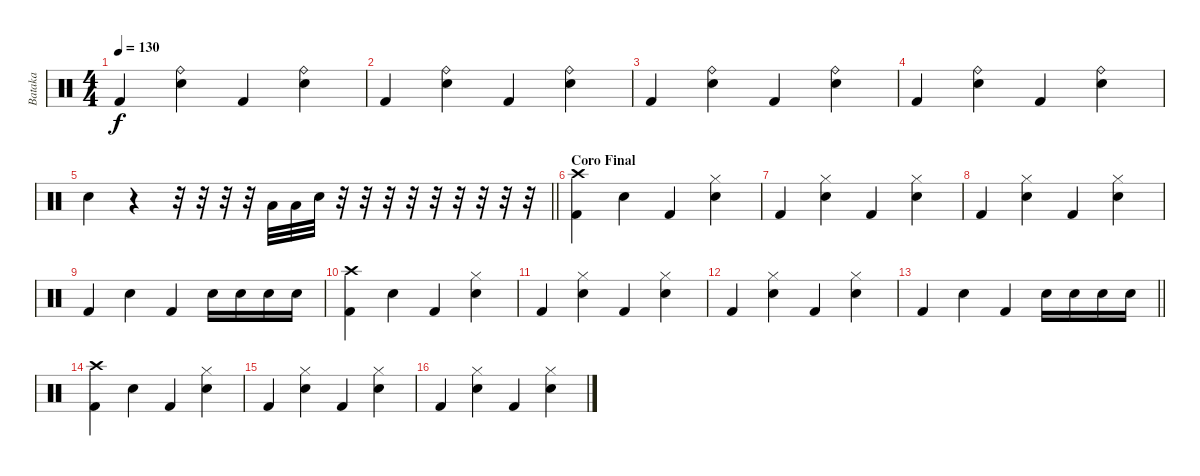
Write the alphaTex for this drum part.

\track ("Bataka" "Bataka") {instrument percussion}
\staff {score}
\articulation defaults
\ts (4 4)
\tempo 130
\clef neutral
\ks c "Kick (hit) 2".4{dy f}
("Ride (bell)" "Snare (hit) 2").4 "Kick (hit) 2".4 ("Ride (bell)" "Snare (hit) 2").4 |
"Kick (hit) 2".4 ("Ride (bell)" "Snare (hit) 2").4 "Kick (hit) 2".4 ("Ride (bell)" "Snare (hit) 2").4 |
"Kick (hit) 2".4 ("Ride (bell)" "Snare (hit) 2").4 "Kick (hit) 2".4 ("Ride (bell)" "Snare (hit) 2").4 |
"Kick (hit) 2".4 ("Ride (bell)" "Snare (hit) 2").4 "Kick (hit) 2".4 ("Ride (bell)" "Snare (hit) 2").4 |
\barLineRight lightlight "Snare (hit) 2".4
r.4 r.32 r.32 r.32 r.32 "Low Floor Tom (hit)".32 "Low Floor Tom (hit)".32 "Snare (hit) 2".32 r.32 r.32 r.32 r.32 r.32 r.32 r.32 r.32 r.32 |
\section ("" "Coro Final")
("Crash high (hit)" "Kick (hit) 2").4 "Snare (hit) 2".4 "Kick (hit) 2".4 ("Hi-Hat (closed)" "Snare (hit) 2").4 |
"Kick (hit) 2".4 ("Hi-Hat (closed)" "Snare (hit) 2").4 "Kick (hit) 2".4 ("Hi-Hat (closed)" "Snare (hit) 2").4 |
"Kick (hit) 2".4 ("Hi-Hat (closed)" "Snare (hit) 2").4 "Kick (hit) 2".4 ("Hi-Hat (closed)" "Snare (hit) 2").4 |
"Kick (hit) 2".4 "Snare (hit) 2".4 "Kick (hit) 2".4 "Snare (hit) 2".16 "Snare (hit) 2".16 "Snare (hit) 2".16 "Snare (hit) 2".16 |
("Crash high (hit)" "Kick (hit) 2").4 "Snare (hit) 2".4 "Kick (hit) 2".4 ("Hi-Hat (closed)" "Snare (hit) 2").4 |
"Kick (hit) 2".4 ("Hi-Hat (closed)" "Snare (hit) 2").4 "Kick (hit) 2".4 ("Hi-Hat (closed)" "Snare (hit) 2").4 |
"Kick (hit) 2".4 ("Hi-Hat (closed)" "Snare (hit) 2").4 "Kick (hit) 2".4 ("Hi-Hat (closed)" "Snare (hit) 2").4 |
\barLineRight lightlight "Kick (hit) 2".4 "Snare (hit) 2".4 "Kick (hit) 2".4 "Snare (hit) 2".16 "Snare (hit) 2".16 "Snare (hit) 2".16 "Snare (hit) 2".16
|
("Crash high (hit)" "Kick (hit) 2").4 "Snare (hit) 2".4 "Kick (hit) 2".4 ("Hi-Hat (closed)" "Snare (hit) 2").4 |
"Kick (hit) 2".4 ("Hi-Hat (closed)" "Snare (hit) 2").4 "Kick (hit) 2".4 ("Hi-Hat (closed)" "Snare (hit) 2").4 |
"Kick (hit) 2".4 ("Hi-Hat (closed)" "Snare (hit) 2").4 "Kick (hit) 2".4 ("Hi-Hat (closed)" "Snare (hit) 2").4
